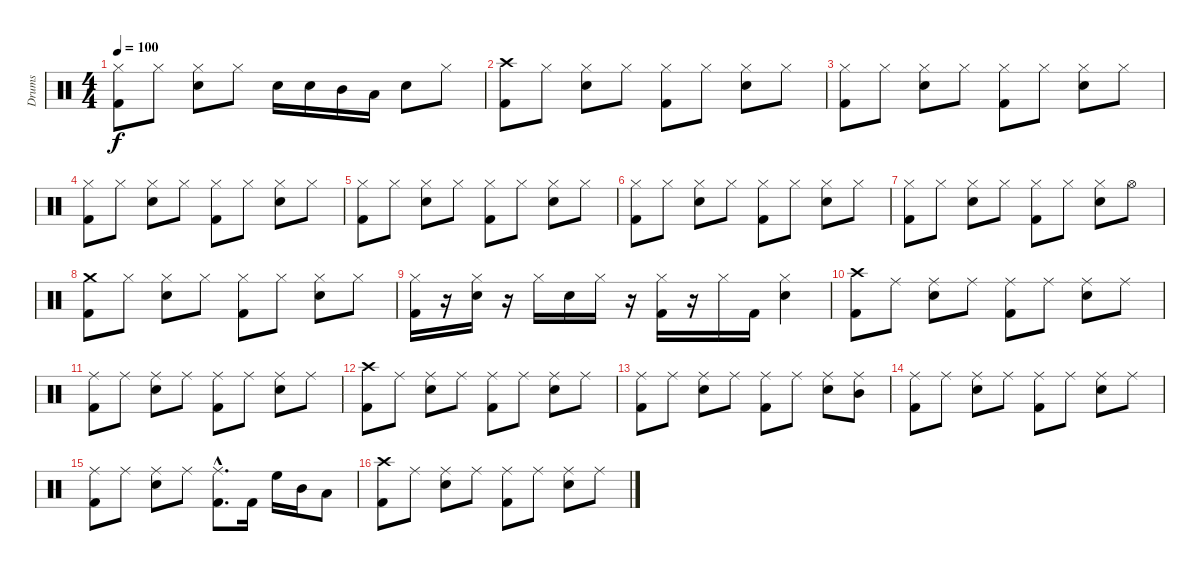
\track ("Drums" "Drums") {instrument percussion}
\staff {score}
\articulation defaults
\ts (4 4)
\tempo 100
\clef neutral
\ks c
("Hi-Hat (closed)" "Kick (hit) 2").8{dy f} "Hi-Hat (closed)".8 ("Hi-Hat (closed)" "Snare (hit) 2").8 "Hi-Hat (closed)".8 "Snare (hit) 2".16 "Snare (hit) 2".16 "Mid Tom (hit)".16 "Low Tom (hit)".16 "Snare (hit) 2".8 "Hi-Hat (closed)".8 |
("Crash high (hit)" "Kick (hit) 2").8 "Hi-Hat (closed)".8 ("Hi-Hat (closed)" "Snare (hit) 2").8 "Hi-Hat (closed)".8 ("Hi-Hat (closed)" "Kick (hit) 2").8 "Hi-Hat (closed)".8 ("Hi-Hat (closed)" "Snare (hit) 2").8 "Hi-Hat (closed)".8 |
("Hi-Hat (closed)" "Kick (hit) 2").8 "Hi-Hat (closed)".8 ("Hi-Hat (closed)" "Snare (hit) 2").8 "Hi-Hat (closed)".8 ("Hi-Hat (closed)" "Kick (hit) 2").8 "Hi-Hat (closed)".8 ("Hi-Hat (closed)" "Snare (hit) 2").8 "Hi-Hat (closed)".8 |
("Hi-Hat (closed)" "Kick (hit) 2").8 "Hi-Hat (closed)".8 ("Hi-Hat (closed)" "Snare (hit) 2").8 "Hi-Hat (closed)".8 ("Hi-Hat (closed)" "Kick (hit) 2").8 "Hi-Hat (closed)".8 ("Hi-Hat (closed)" "Snare (hit) 2").8 "Hi-Hat (closed)".8 |
("Hi-Hat (closed)" "Kick (hit) 2").8 "Hi-Hat (closed)".8 ("Hi-Hat (closed)" "Snare (hit) 2").8 "Hi-Hat (closed)".8 ("Hi-Hat (closed)" "Kick (hit) 2").8 "Hi-Hat (closed)".8 ("Hi-Hat (closed)" "Snare (hit) 2").8 "Hi-Hat (closed)".8 |
("Hi-Hat (closed)" "Kick (hit) 2").8 "Hi-Hat (closed)".8 ("Hi-Hat (closed)" "Snare (hit) 2").8 "Hi-Hat (closed)".8 ("Hi-Hat (closed)" "Kick (hit) 2").8 "Hi-Hat (closed)".8 ("Hi-Hat (closed)" "Snare (hit) 2").8 "Hi-Hat (closed)".8 |
("Hi-Hat (closed)" "Kick (hit) 2").8 "Hi-Hat (closed)".8 ("Hi-Hat (closed)" "Snare (hit) 2").8 "Hi-Hat (closed)".8 ("Hi-Hat (closed)" "Kick (hit) 2").8 "Hi-Hat (closed)".8 ("Hi-Hat (closed)" "Snare (hit) 2").8 "Hi-Hat (open)".8 |
("Crash medium (hit)" "Kick (hit) 2").8 "Hi-Hat (closed)".8 ("Hi-Hat (closed)" "Snare (hit) 2").8 "Hi-Hat (closed)".8 ("Hi-Hat (closed)" "Kick (hit) 2").8 "Hi-Hat (closed)".8 ("Hi-Hat (closed)" "Snare (hit) 2").8 "Hi-Hat (closed)".8 |
("Hi-Hat (closed)" "Kick (hit) 2").16 r.16 ("Hi-Hat (closed)" "Snare (hit) 2").16 r.16 "Hi-Hat (closed)".16 "Snare (hit) 2".16 "Hi-Hat (closed)".16 r.16 ("Hi-Hat (closed)" "Kick (hit) 2").16 r.16 "Hi-Hat (closed)".16 "Kick (hit) 2".16 ("Hi-Hat (closed)" "Snare (hit) 2").4 |
("Crash high (hit)" "Kick (hit) 2").8 "Ride (middle)".8 ("Ride (middle)" "Snare (hit) 2").8 "Ride (middle)".8 ("Ride (middle)" "Kick (hit) 2").8 "Ride (middle)".8 ("Ride (middle)" "Snare (hit) 2").8 "Ride (middle)".8 |
("Ride (middle)" "Kick (hit) 2").8 "Ride (middle)".8 ("Ride (middle)" "Snare (hit) 2").8 "Ride (middle)".8 ("Ride (middle)" "Kick (hit) 2").8 "Ride (middle)".8 ("Ride (middle)" "Snare (hit) 2").8 "Ride (middle)".8 |
("Crash high (hit)" "Kick (hit) 2").8 "Ride (middle)".8 ("Ride (middle)" "Snare (hit) 2").8 "Ride (middle)".8 ("Ride (middle)" "Kick (hit) 2").8 "Ride (middle)".8 ("Ride (middle)" "Snare (hit) 2").8 "Ride (middle)".8 |
("Ride (middle)" "Kick (hit) 2").8 "Ride (middle)".8 ("Ride (middle)" "Snare (hit) 2").8 "Ride (middle)".8 ("Ride (middle)" "Kick (hit) 2").8 "Ride (middle)".8 ("Ride (middle)" "Snare (hit) 2").8 ("Ride (middle)" "Mid Tom (hit)").8 |
("Ride (middle)" "Kick (hit) 2").8 "Ride (middle)".8 ("Ride (middle)" "Snare (hit) 2").8 "Ride (middle)".8 ("Ride (middle)" "Kick (hit) 2").8 "Ride (middle)".8 ("Ride (middle)" "Snare (hit) 2").8 "Ride (middle)".8 |
("Ride (middle)" "Kick (hit) 2").8 "Ride (middle)".8 ("Ride (middle)" "Snare (hit) 2").8 "Ride (middle)".8 ("Ride (middle)"{hac} "Kick (hit) 2"{hac}).8{d} "Kick (hit) 2".16 "High Floor Tom (hit)".16 "Mid Tom (hit)".16 "Low Tom (hit)".8 |
("Crash high (hit)" "Kick (hit) 2").8 "Ride (middle)".8 ("Ride (middle)" "Snare (hit) 2").8 "Ride (middle)".8 ("Ride (middle)" "Kick (hit) 2").8 "Ride (middle)".8 ("Ride (middle)" "Snare (hit) 2").8 "Ride (middle)".8
